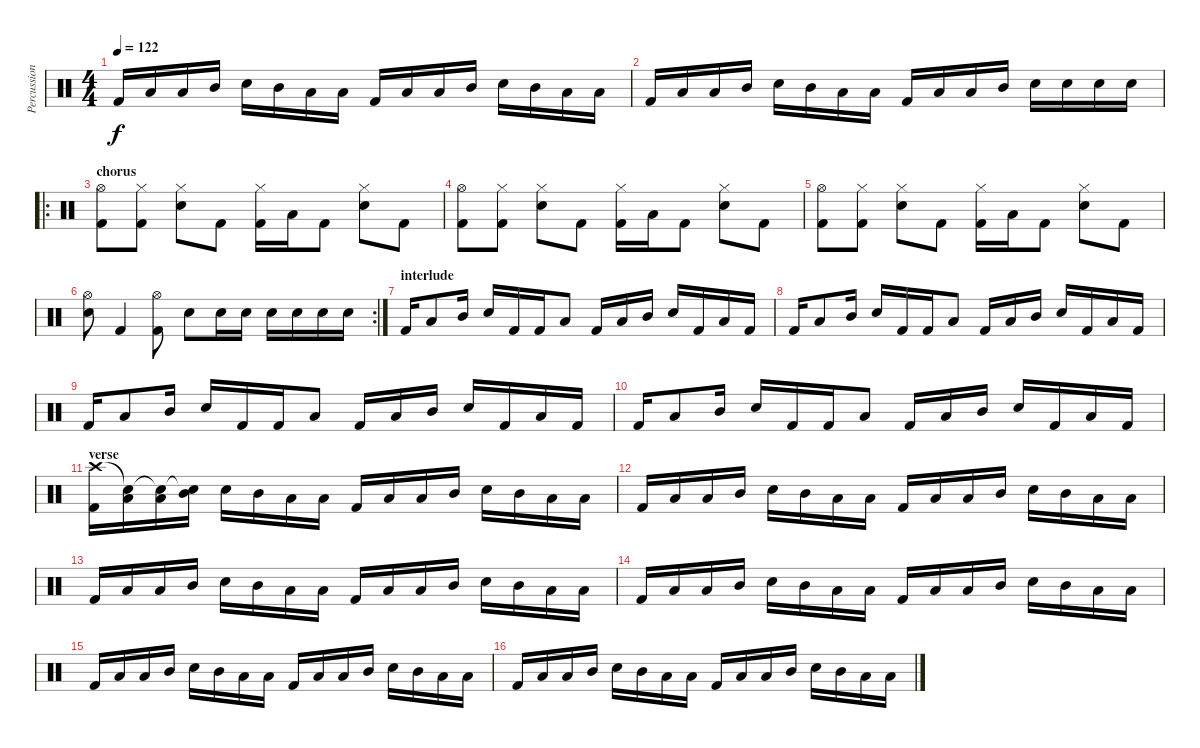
\track ("Percussion" "Percussion") {instrument percussion}
\staff {score}
\articulation defaults
\ts (4 4)
\tempo 122
\clef neutral
\ks c "Kick (hit) 2".16{dy f} "Low Tom (hit)".16 "Low Tom (hit)".16 "Mid Tom (hit)".16 "Electric Snare (hit)".16 "Mid Tom (hit)".16 "Low Tom (hit)".16 "Low Tom (hit)".16 "Kick (hit) 2".16 "Low Tom (hit)".16 "Low Tom (hit)".16 "Mid Tom (hit)".16 "Electric Snare (hit)".16 "Mid Tom (hit)".16 "Low Tom (hit)".16 "Low Tom (hit)".16
|
"Kick (hit) 2".16 "Low Tom (hit)".16 "Low Tom (hit)".16 "Mid Tom (hit)".16 "Electric Snare (hit)".16 "Mid Tom (hit)".16 "Low Tom (hit)".16 "Low Tom (hit)".16 "Kick (hit) 2".16 "Low Tom (hit)".16 "Low Tom (hit)".16 "Mid Tom (hit)".16 "Electric Snare (hit)".16 "Electric Snare (hit)".16 "Electric Snare (hit)".16 "Electric Snare (hit)".16 |
\ro
\section ("" "chorus")
("Hi-Hat (open)" "Kick (hit) 2").8 ("Hi-Hat (closed)" "Kick (hit) 2").8 ("Hi-Hat (closed)" "Electric Snare (hit)").8 "Kick (hit) 2".8 ("Hi-Hat (closed)" "Kick (hit) 2").16 "Low Tom (hit)".16 "Kick (hit) 2".8 ("Hi-Hat (closed)" "Electric Snare (hit)").8 "Kick (hit) 2".8 |
("Hi-Hat (open)" "Kick (hit) 2").8 ("Hi-Hat (closed)" "Kick (hit) 2").8 ("Hi-Hat (closed)" "Electric Snare (hit)").8 "Kick (hit) 2".8 ("Hi-Hat (closed)" "Kick (hit) 2").16 "Low Tom (hit)".16 "Kick (hit) 2".8 ("Hi-Hat (closed)" "Electric Snare (hit)").8 "Kick (hit) 2".8 |
("Hi-Hat (open)" "Kick (hit) 2").8 ("Hi-Hat (closed)" "Kick (hit) 2").8 ("Hi-Hat (closed)" "Electric Snare (hit)").8 "Kick (hit) 2".8 ("Hi-Hat (closed)" "Kick (hit) 2").16 "Low Tom (hit)".16 "Kick (hit) 2".8 ("Hi-Hat (closed)" "Electric Snare (hit)").8 "Kick (hit) 2".8 |
\rc 2
("Hi-Hat (open)" "Electric Snare (hit)").8 "Kick (hit) 2".4 ("Hi-Hat (open)" "Kick (hit) 2").8 "Electric Snare (hit)".8 "Electric Snare (hit)".16 "Electric Snare (hit)".16 "Electric Snare (hit)".16 "Electric Snare (hit)".16 "Electric Snare (hit)".16 "Electric Snare (hit)".16 |
\section ("" "interlude")
"Kick (hit) 2".16 "Low Tom (hit)".8 "Mid Tom (hit)".16 "Electric Snare (hit)".16 "Kick (hit) 2".16 "Kick (hit) 2".16 "Low Tom (hit)".8 "Kick (hit) 2".16 "Low Tom (hit)".16 "Mid Tom (hit)".16 "Electric Snare (hit)".16 "Kick (hit) 2".16 "Low Tom (hit)".16 "Kick (hit) 2".16 |
"Kick (hit) 2".16 "Low Tom (hit)".8 "Mid Tom (hit)".16 "Electric Snare (hit)".16 "Kick (hit) 2".16 "Kick (hit) 2".16 "Low Tom (hit)".8 "Kick (hit) 2".16 "Low Tom (hit)".16 "Mid Tom (hit)".16 "Electric Snare (hit)".16 "Kick (hit) 2".16 "Low Tom (hit)".16 "Kick (hit) 2".16 |
"Kick (hit) 2".16 "Low Tom (hit)".8 "Mid Tom (hit)".16 "Electric Snare (hit)".16 "Kick (hit) 2".16 "Kick (hit) 2".16 "Low Tom (hit)".8 "Kick (hit) 2".16 "Low Tom (hit)".16 "Mid Tom (hit)".16 "Electric Snare (hit)".16 "Kick (hit) 2".16 "Low Tom (hit)".16 "Kick (hit) 2".16 |
"Kick (hit) 2".16 "Low Tom (hit)".8 "Mid Tom (hit)".16 "Electric Snare (hit)".16 "Kick (hit) 2".16 "Kick (hit) 2".16 "Low Tom (hit)".8 "Kick (hit) 2".16 "Low Tom (hit)".16 "Mid Tom (hit)".16 "Electric Snare (hit)".16 "Kick (hit) 2".16 "Low Tom (hit)".16 "Kick (hit) 2".16 |
\section ("" "verse")
("Crash high (hit)" "Kick (hit) 2").16 ("Snare (hit)"{t} "Low Tom (hit)").16 ("Snare (hit)"{t} "Low Tom (hit)").16 ("Snare (hit)"{t} "Mid Tom (hit)").16 "Electric Snare (hit)".16 "Mid Tom (hit)".16 "Low Tom (hit)".16 "Low Tom (hit)".16 "Kick (hit) 2".16 "Low Tom (hit)".16 "Low Tom (hit)".16 "Mid Tom (hit)".16 "Electric Snare (hit)".16 "Mid Tom (hit)".16 "Low Tom (hit)".16 "Low Tom (hit)".16 |
"Kick (hit) 2".16 "Low Tom (hit)".16 "Low Tom (hit)".16 "Mid Tom (hit)".16 "Electric Snare (hit)".16 "Mid Tom (hit)".16 "Low Tom (hit)".16 "Low Tom (hit)".16 "Kick (hit) 2".16 "Low Tom (hit)".16 "Low Tom (hit)".16 "Mid Tom (hit)".16 "Electric Snare (hit)".16 "Mid Tom (hit)".16 "Low Tom (hit)".16 "Low Tom (hit)".16 |
"Kick (hit) 2".16 "Low Tom (hit)".16 "Low Tom (hit)".16 "Mid Tom (hit)".16 "Electric Snare (hit)".16 "Mid Tom (hit)".16 "Low Tom (hit)".16 "Low Tom (hit)".16 "Kick (hit) 2".16 "Low Tom (hit)".16 "Low Tom (hit)".16 "Mid Tom (hit)".16 "Electric Snare (hit)".16 "Mid Tom (hit)".16 "Low Tom (hit)".16 "Low Tom (hit)".16 |
"Kick (hit) 2".16 "Low Tom (hit)".16 "Low Tom (hit)".16 "Mid Tom (hit)".16 "Electric Snare (hit)".16 "Mid Tom (hit)".16 "Low Tom (hit)".16 "Low Tom (hit)".16 "Kick (hit) 2".16 "Low Tom (hit)".16 "Low Tom (hit)".16 "Mid Tom (hit)".16 "Electric Snare (hit)".16 "Mid Tom (hit)".16 "Low Tom (hit)".16 "Low Tom (hit)".16 |
"Kick (hit) 2".16 "Low Tom (hit)".16 "Low Tom (hit)".16 "Mid Tom (hit)".16 "Electric Snare (hit)".16 "Mid Tom (hit)".16 "Low Tom (hit)".16 "Low Tom (hit)".16 "Kick (hit) 2".16 "Low Tom (hit)".16 "Low Tom (hit)".16 "Mid Tom (hit)".16 "Electric Snare (hit)".16 "Mid Tom (hit)".16 "Low Tom (hit)".16 "Low Tom (hit)".16 |
"Kick (hit) 2".16 "Low Tom (hit)".16 "Low Tom (hit)".16 "Mid Tom (hit)".16 "Electric Snare (hit)".16 "Mid Tom (hit)".16 "Low Tom (hit)".16 "Low Tom (hit)".16 "Kick (hit) 2".16 "Low Tom (hit)".16 "Low Tom (hit)".16 "Mid Tom (hit)".16 "Electric Snare (hit)".16 "Mid Tom (hit)".16 "Low Tom (hit)".16 "Low Tom (hit)".16
